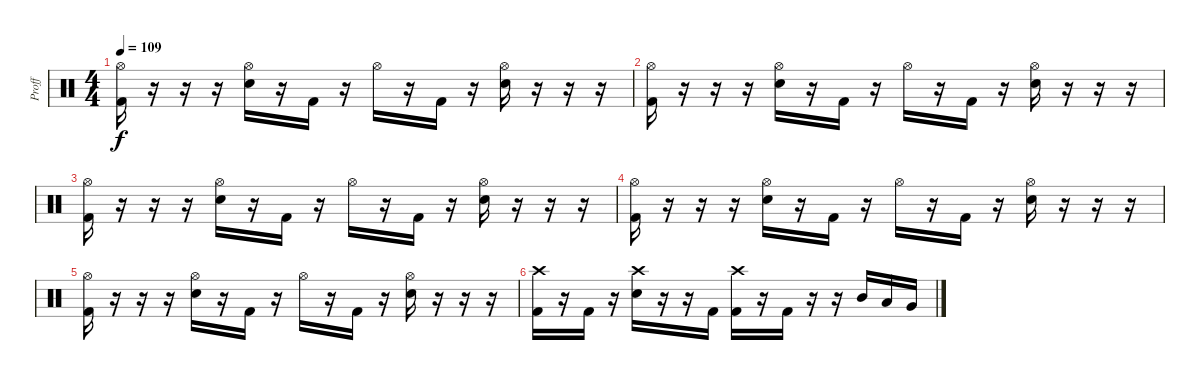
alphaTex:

\track ("Proff" "Proff") {instrument percussion}
\staff {score}
\articulation defaults
\ts (4 4)
\tempo 109
\clef neutral
\ks c
("Hi-Hat (open)" "Kick (hit) 2").16{dy f} r.16 r.16 r.16 ("Hi-Hat (open)" "Electric Snare (hit)").16 r.16 "Kick (hit) 2".16 r.16 "Hi-Hat (open)".16 r.16 "Kick (hit) 2".16 r.16 ("Hi-Hat (open)" "Electric Snare (hit)").16 r.16 r.16 r.16 |
("Hi-Hat (open)" "Kick (hit) 2").16 r.16 r.16 r.16 ("Hi-Hat (open)" "Electric Snare (hit)").16 r.16 "Kick (hit) 2".16 r.16 "Hi-Hat (open)".16 r.16 "Kick (hit) 2".16 r.16 ("Hi-Hat (open)" "Electric Snare (hit)").16 r.16 r.16 r.16 |
("Hi-Hat (open)" "Kick (hit) 2").16 r.16 r.16 r.16 ("Hi-Hat (open)" "Electric Snare (hit)").16 r.16 "Kick (hit) 2".16 r.16 "Hi-Hat (open)".16 r.16 "Kick (hit) 2".16 r.16 ("Hi-Hat (open)" "Electric Snare (hit)").16 r.16 r.16 r.16 |
("Hi-Hat (open)" "Kick (hit) 2").16 r.16 r.16 r.16 ("Hi-Hat (open)" "Electric Snare (hit)").16 r.16 "Kick (hit) 2".16 r.16 "Hi-Hat (open)".16 r.16 "Kick (hit) 2".16 r.16 ("Hi-Hat (open)" "Electric Snare (hit)").16 r.16 r.16 r.16 |
("Hi-Hat (open)" "Kick (hit) 2").16 r.16 r.16 r.16 ("Hi-Hat (open)" "Electric Snare (hit)").16 r.16 "Kick (hit) 2".16 r.16 "Hi-Hat (open)".16 r.16 "Kick (hit) 2".16 r.16 ("Hi-Hat (open)" "Electric Snare (hit)").16 r.16 r.16 r.16 |
("Crash high (hit)" "Kick (hit) 2").16 r.16 "Kick (hit) 2".16 r.16 ("Crash high (hit)" "Electric Snare (hit)").16 r.16 r.16 "Kick (hit) 2".16 ("Crash high (hit)" "Kick (hit) 2").16 r.16 "Kick (hit) 2".16 r.16 r.16 "Mid Tom (hit)".16 "Low Tom (hit)".16 "Very Low Tom (hit)".16
